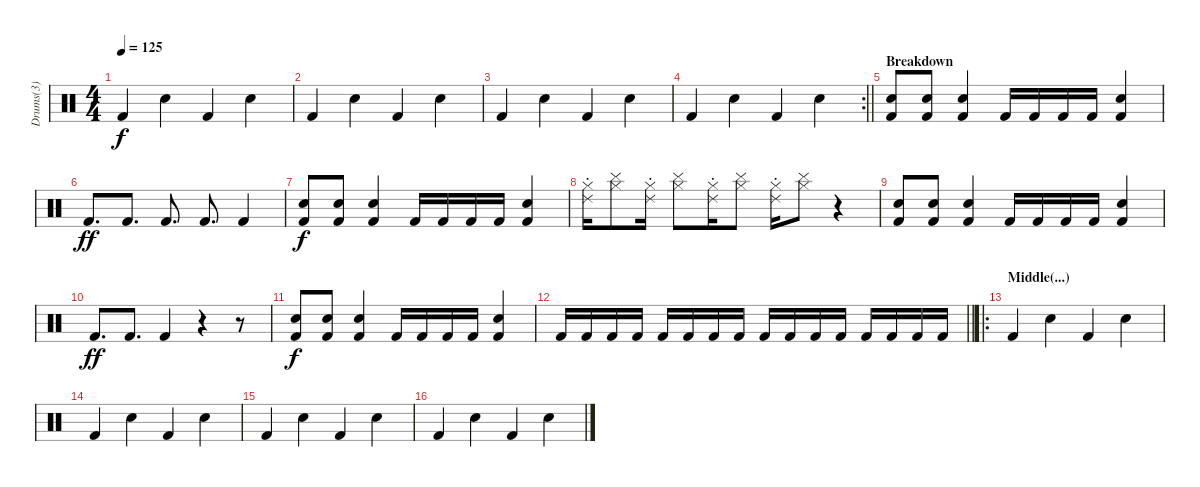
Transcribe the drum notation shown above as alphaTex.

\track ("Drums(3)" "Drums(3)") {instrument percussion}
\staff {score}
\articulation defaults
\ts (4 4)
\tempo 125
\clef neutral
\ks c "Kick (hit) 2".4{dy f} "Electric Snare (hit)".4 "Kick (hit) 2".4 "Electric Snare (hit)".4
|
"Kick (hit) 2".4 "Electric Snare (hit)".4 "Kick (hit) 2".4 "Electric Snare (hit)".4 |
"Kick (hit) 2".4 "Electric Snare (hit)".4 "Kick (hit) 2".4 "Electric Snare (hit)".4 |
\rc 2
\barLineRight lightlight "Kick (hit) 2".4 "Electric Snare (hit)".4 "Kick (hit) 2".4 "Electric Snare (hit)".4
|
\section ("" "Breakdown")
("Snare (hit) 2" "Kick (hit) 2").8 ("Snare (hit) 2" "Kick (hit) 2").8 ("Snare (hit) 2" "Kick (hit) 2").4 "Kick (hit) 2".16 "Kick (hit) 2".16 "Kick (hit) 2".16 "Kick (hit) 2".16 ("Snare (hit) 2" "Kick (hit) 2").4 |
"Kick (hit) 2".8{d dy ff} "Kick (hit) 2".8{d} "Kick (hit) 2".8{d} "Kick (hit) 2".8{d} "Kick (hit) 2".4 |
("Snare (hit) 2" "Kick (hit) 2").8{dy f} ("Snare (hit) 2" "Kick (hit) 2").8 ("Snare (hit) 2" "Kick (hit) 2").4 "Kick (hit) 2".16 "Kick (hit) 2".16 "Kick (hit) 2".16 "Kick (hit) 2".16 ("Snare (hit) 2" "Kick (hit) 2").4 |
("Hi-Hat (closed)" "Ride (choke) 2").16 ("Hi-Hat (closed)" "Cymbal (hit)").8 ("Hi-Hat (closed)" "Ride (choke) 2").16 ("Hi-Hat (closed)" "Cymbal (hit)").8 ("Hi-Hat (closed)" "Ride (choke) 2").16 ("Hi-Hat (closed)" "Cymbal (hit)").8 ("Hi-Hat (closed)" "Ride (choke) 2").16 ("Hi-Hat (closed)" "Cymbal (hit)").8 r.4 |
("Snare (hit) 2" "Kick (hit) 2").8 ("Snare (hit) 2" "Kick (hit) 2").8 ("Snare (hit) 2" "Kick (hit) 2").4 "Kick (hit) 2".16 "Kick (hit) 2".16 "Kick (hit) 2".16 "Kick (hit) 2".16 ("Snare (hit) 2" "Kick (hit) 2").4 |
"Kick (hit) 2".8{d dy ff} "Kick (hit) 2".8{d} "Kick (hit) 2".4 r.4 r.8 |
("Snare (hit) 2" "Kick (hit) 2").8{dy f} ("Snare (hit) 2" "Kick (hit) 2").8 ("Snare (hit) 2" "Kick (hit) 2").4 "Kick (hit) 2".16 "Kick (hit) 2".16 "Kick (hit) 2".16 "Kick (hit) 2".16 ("Snare (hit) 2" "Kick (hit) 2").4 |
\barLineRight lightlight "Kick (hit) 2".16 "Kick (hit) 2".16 "Kick (hit) 2".16 "Kick (hit) 2".16 "Kick (hit) 2".16 "Kick (hit) 2".16 "Kick (hit) 2".16 "Kick (hit) 2".16 "Kick (hit) 2".16 "Kick (hit) 2".16 "Kick (hit) 2".16 "Kick (hit) 2".16 "Kick (hit) 2".16 "Kick (hit) 2".16 "Kick (hit) 2".16 "Kick (hit) 2".16
|
\ro
\section ("" "Middle(...)")
"Kick (hit) 2".4{volume 16} "Electric Snare (hit)".4 "Kick (hit) 2".4 "Electric Snare (hit)".4 |
"Kick (hit) 2".4 "Electric Snare (hit)".4 "Kick (hit) 2".4 "Electric Snare (hit)".4 |
"Kick (hit) 2".4 "Electric Snare (hit)".4 "Kick (hit) 2".4 "Electric Snare (hit)".4 |
"Kick (hit) 2".4 "Electric Snare (hit)".4 "Kick (hit) 2".4 "Electric Snare (hit)".4
